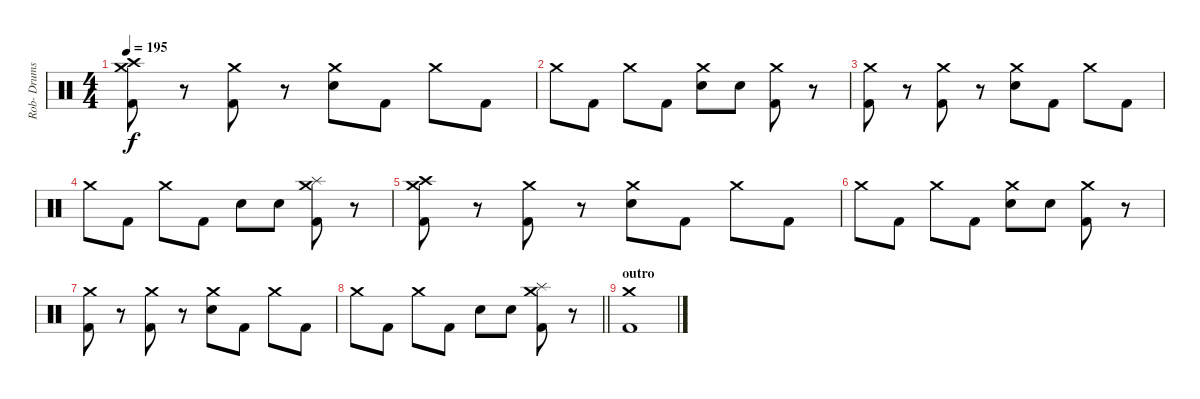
\track ("Rob- Drums" "Rob- Drums") {instrument percussion}
\staff {score}
\articulation defaults
\ts (4 4)
\tempo 195
\clef neutral
\ks c
("Crash high (hit)" "Crash medium (hit)" "Kick (hit) 2").8{dy f} r.8 ("Crash medium (hit)" "Kick (hit) 2").8 r.8 ("Crash medium (hit)" "Electric Snare (hit)").8 "Kick (hit) 2".8 "Crash medium (hit)".8 "Kick (hit) 2".8 |
"Crash medium (hit)".8 "Kick (hit) 2".8 "Crash medium (hit)".8 "Kick (hit) 2".8 ("Crash medium (hit)" "Electric Snare (hit)").8 "Electric Snare (hit)".8 ("Crash medium (hit)" "Kick (hit) 2").8 r.8 |
("Crash medium (hit)" "Kick (hit) 2").8 r.8 ("Crash medium (hit)" "Kick (hit) 2").8 r.8 ("Crash medium (hit)" "Electric Snare (hit)").8 "Kick (hit) 2".8 "Crash medium (hit)".8 "Kick (hit) 2".8 |
"Crash medium (hit)".8 "Kick (hit) 2".8 "Crash medium (hit)".8 "Kick (hit) 2".8 "Electric Snare (hit)".8 "Electric Snare (hit)".8 ("Crash medium (hit)" "Splash (hit)" "Kick (hit) 2").8 r.8 |
("Crash high (hit)" "Crash medium (hit)" "Kick (hit) 2").8 r.8 ("Crash medium (hit)" "Kick (hit) 2").8 r.8 ("Crash medium (hit)" "Electric Snare (hit)").8 "Kick (hit) 2".8 "Crash medium (hit)".8 "Kick (hit) 2".8 |
"Crash medium (hit)".8 "Kick (hit) 2".8 "Crash medium (hit)".8 "Kick (hit) 2".8 ("Crash medium (hit)" "Electric Snare (hit)").8 "Electric Snare (hit)".8 ("Crash medium (hit)" "Kick (hit) 2").8 r.8 |
("Crash medium (hit)" "Kick (hit) 2").8 r.8 ("Crash medium (hit)" "Kick (hit) 2").8 r.8 ("Crash medium (hit)" "Electric Snare (hit)").8 "Kick (hit) 2".8 "Crash medium (hit)".8 "Kick (hit) 2".8 |
\barLineRight lightlight "Crash medium (hit)".8 "Kick (hit) 2".8 "Crash medium (hit)".8 "Kick (hit) 2".8 "Electric Snare (hit)".8 "Electric Snare (hit)".8
("Crash medium (hit)" "Splash (hit)" "Kick (hit) 2").8 r.8 |
\section ("" "outro")
("Crash medium (hit)" "Kick (hit) 2").1
